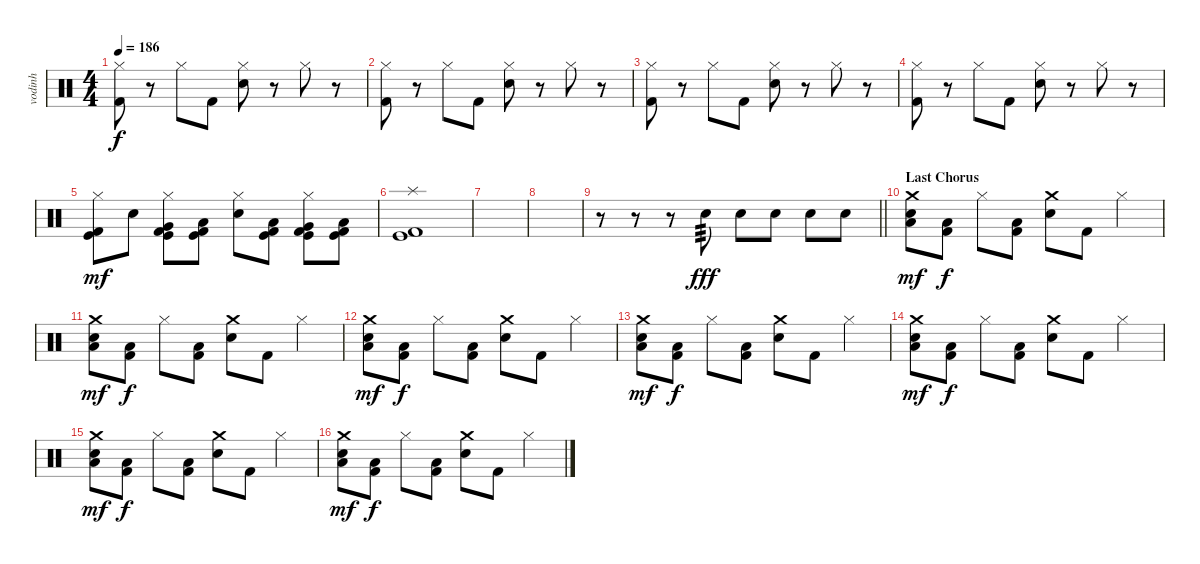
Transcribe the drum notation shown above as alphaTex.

\track ("vodinh" "vodinh") {instrument percussion}
\staff {score}
\articulation defaults
\ts (4 4)
\tempo 186
\clef neutral
\ks c
("Hi-Hat (closed)" "Kick (hit) 2").8{dy f} r.8 "Hi-Hat (closed)".8 "Kick (hit) 2".8 ("Hi-Hat (closed)" "Snare (hit) 2").8 r.8 "Hi-Hat (closed)".8 r.8 |
("Hi-Hat (closed)" "Kick (hit) 2").8 r.8 "Hi-Hat (closed)".8 "Kick (hit) 2".8 ("Hi-Hat (closed)" "Snare (hit) 2").8 r.8 "Hi-Hat (closed)".8 r.8 |
("Hi-Hat (closed)" "Kick (hit) 2").8 r.8 "Hi-Hat (closed)".8 "Kick (hit) 2".8 ("Hi-Hat (closed)" "Snare (hit) 2").8 r.8 "Hi-Hat (closed)".8 r.8 |
("Hi-Hat (closed)" "Kick (hit) 2").8 r.8 "Hi-Hat (closed)".8 "Kick (hit) 2".8 ("Hi-Hat (closed)" "Snare (hit) 2").8 r.8 "Hi-Hat (closed)".8 r.8 |
("Hi-Hat (closed)" "Kick (hit)" "Kick (hit) 2").8{dy mf} "Electric Snare (hit)".8 ("Hi-Hat (closed)" "Very Low Tom (hit)" "Kick (hit)" "Kick (hit) 2").8 ("Low Tom (hit)" "Kick (hit)" "Kick (hit) 2").8 ("Hi-Hat (closed)" "Electric Snare (hit)").8 ("Low Tom (hit)" "Kick (hit)" "Kick (hit) 2").8 ("Hi-Hat (closed)" "Very Low Tom (hit)" "Kick (hit)" "Kick (hit) 2").8 ("Low Floor Tom (hit)" "Kick (hit)" "Kick (hit) 2").8 |
("Splash (hit)" "Kick (hit)" "Kick (hit) 2").1 |
|
|
\barLineRight lightlight
r.8 r.8 r.8 "Snare (hit) 2".8{tp 3 dy fff} "Snare (hit) 2".8 "Snare (hit) 2".8 "Snare (hit) 2".8 "Snare (hit) 2".8 |
\section ("" "Last Chorus")
("Snare (hit) 2" "Crash medium (hit)" "Low Floor Tom (hit)").8{dy mf} ("Kick (hit) 2" "Low Floor Tom (hit)").8{dy f} "Hi-Hat (closed)".8 ("Kick (hit) 2" "Low Floor Tom (hit)").8 ("Snare (hit) 2" "Crash medium (hit)").8 "Kick (hit) 2".8 "Hi-Hat (closed)".4 |
("Snare (hit) 2" "Crash medium (hit)" "Low Floor Tom (hit)").8{dy mf} ("Kick (hit) 2" "Low Floor Tom (hit)").8{dy f} "Hi-Hat (closed)".8 ("Kick (hit) 2" "Low Floor Tom (hit)").8 ("Snare (hit) 2" "Crash medium (hit)").8 "Kick (hit) 2".8 "Hi-Hat (closed)".4 |
("Snare (hit) 2" "Crash medium (hit)" "Low Floor Tom (hit)").8{dy mf} ("Kick (hit) 2" "Low Floor Tom (hit)").8{dy f} "Hi-Hat (closed)".8 ("Kick (hit) 2" "Low Floor Tom (hit)").8 ("Snare (hit) 2" "Crash medium (hit)").8 "Kick (hit) 2".8 "Hi-Hat (closed)".4 |
("Snare (hit) 2" "Crash medium (hit)" "Low Floor Tom (hit)").8{dy mf} ("Kick (hit) 2" "Low Floor Tom (hit)").8{dy f} "Hi-Hat (closed)".8 ("Kick (hit) 2" "Low Floor Tom (hit)").8 ("Snare (hit) 2" "Crash medium (hit)").8 "Kick (hit) 2".8 "Hi-Hat (closed)".4 |
("Snare (hit) 2" "Crash medium (hit)" "Low Floor Tom (hit)").8{dy mf} ("Kick (hit) 2" "Low Floor Tom (hit)").8{dy f} "Hi-Hat (closed)".8 ("Kick (hit) 2" "Low Floor Tom (hit)").8 ("Snare (hit) 2" "Crash medium (hit)").8 "Kick (hit) 2".8 "Hi-Hat (closed)".4 |
("Snare (hit) 2" "Crash medium (hit)" "Low Floor Tom (hit)").8{dy mf} ("Kick (hit) 2" "Low Floor Tom (hit)").8{dy f} "Hi-Hat (closed)".8 ("Kick (hit) 2" "Low Floor Tom (hit)").8 ("Snare (hit) 2" "Crash medium (hit)").8 "Kick (hit) 2".8 "Hi-Hat (closed)".4 |
("Snare (hit) 2" "Crash medium (hit)" "Low Floor Tom (hit)").8{dy mf} ("Kick (hit) 2" "Low Floor Tom (hit)").8{dy f} "Hi-Hat (closed)".8 ("Kick (hit) 2" "Low Floor Tom (hit)").8 ("Snare (hit) 2" "Crash medium (hit)").8 "Kick (hit) 2".8 "Hi-Hat (closed)".4
